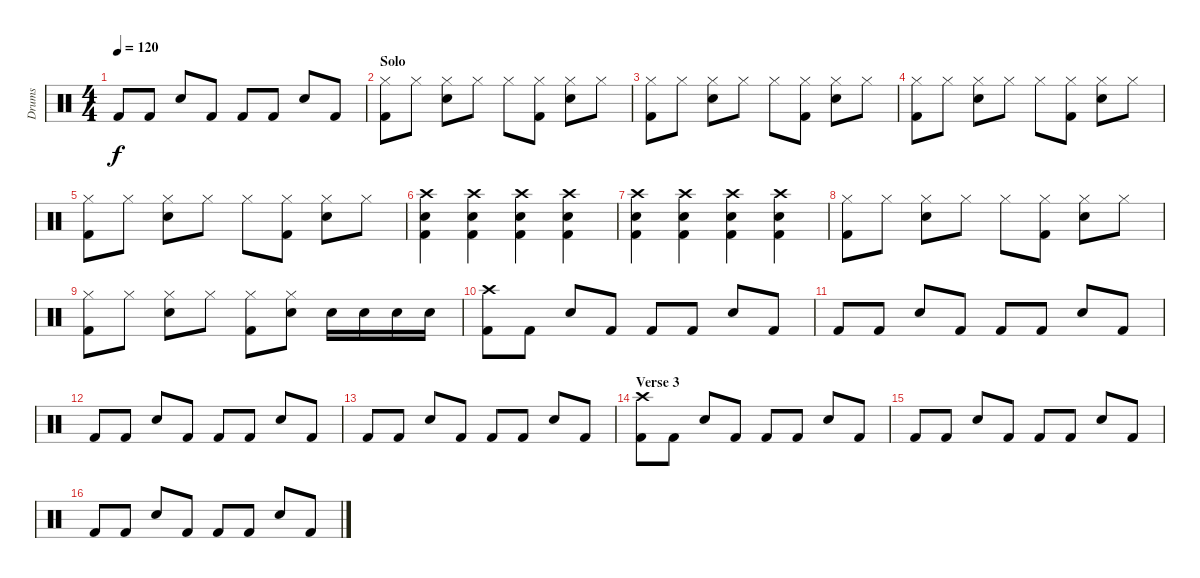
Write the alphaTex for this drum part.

\track ("Drums" "Drums") {instrument percussion}
\staff {score}
\articulation defaults
\ts (4 4)
\tempo 120
\clef neutral
\ks c "Kick (hit) 2".8{dy f} "Kick (hit) 2".8 "Snare (hit) 2".8 "Kick (hit) 2".8 "Kick (hit) 2".8 "Kick (hit) 2".8 "Snare (hit) 2".8 "Kick (hit) 2".8
|
\section ("" "Solo")
("Hi-Hat (closed)" "Kick (hit) 2").8 "Hi-Hat (closed)".8 ("Hi-Hat (closed)" "Snare (hit) 2").8 "Hi-Hat (closed)".8 "Hi-Hat (closed)".8 ("Hi-Hat (closed)" "Kick (hit) 2").8 ("Hi-Hat (closed)" "Snare (hit) 2").8 "Hi-Hat (closed)".8 |
("Hi-Hat (closed)" "Kick (hit) 2").8 "Hi-Hat (closed)".8 ("Hi-Hat (closed)" "Snare (hit) 2").8 "Hi-Hat (closed)".8 "Hi-Hat (closed)".8 ("Hi-Hat (closed)" "Kick (hit) 2").8 ("Hi-Hat (closed)" "Snare (hit) 2").8 "Hi-Hat (closed)".8 |
("Hi-Hat (closed)" "Kick (hit) 2").8 "Hi-Hat (closed)".8 ("Hi-Hat (closed)" "Snare (hit) 2").8 "Hi-Hat (closed)".8 "Hi-Hat (closed)".8 ("Hi-Hat (closed)" "Kick (hit) 2").8 ("Hi-Hat (closed)" "Snare (hit) 2").8 "Hi-Hat (closed)".8 |
("Hi-Hat (closed)" "Kick (hit) 2").8 "Hi-Hat (closed)".8 ("Hi-Hat (closed)" "Snare (hit) 2").8 "Hi-Hat (closed)".8 "Hi-Hat (closed)".8 ("Hi-Hat (closed)" "Kick (hit) 2").8 ("Hi-Hat (closed)" "Snare (hit) 2").8 "Hi-Hat (closed)".8 |
("Crash high (hit)" "Snare (hit) 2" "Kick (hit) 2").4 ("Crash high (hit)" "Snare (hit) 2" "Kick (hit) 2").4 ("Crash high (hit)" "Snare (hit) 2" "Kick (hit) 2").4 ("Crash high (hit)" "Snare (hit) 2" "Kick (hit) 2").4 |
("Crash high (hit)" "Snare (hit) 2" "Kick (hit) 2").4 ("Crash high (hit)" "Snare (hit) 2" "Kick (hit) 2").4 ("Crash high (hit)" "Snare (hit) 2" "Kick (hit) 2").4 ("Crash high (hit)" "Snare (hit) 2" "Kick (hit) 2").4 |
("Hi-Hat (closed)" "Kick (hit) 2").8 "Hi-Hat (closed)".8 ("Hi-Hat (closed)" "Snare (hit) 2").8 "Hi-Hat (closed)".8 "Hi-Hat (closed)".8 ("Hi-Hat (closed)" "Kick (hit) 2").8 ("Hi-Hat (closed)" "Snare (hit) 2").8 "Hi-Hat (closed)".8 |
("Hi-Hat (closed)" "Kick (hit) 2").8 "Hi-Hat (closed)".8 ("Hi-Hat (closed)" "Snare (hit) 2").8 "Hi-Hat (closed)".8 ("Hi-Hat (closed)" "Kick (hit) 2").8 ("Hi-Hat (closed)" "Snare (hit) 2").8 "Snare (hit) 2".16 "Snare (hit) 2".16 "Snare (hit) 2".16 "Snare (hit) 2".16 |
("Crash high (hit)" "Kick (hit) 2").8 "Kick (hit) 2".8 "Snare (hit) 2".8 "Kick (hit) 2".8 "Kick (hit) 2".8 "Kick (hit) 2".8 "Snare (hit) 2".8 "Kick (hit) 2".8 |
"Kick (hit) 2".8 "Kick (hit) 2".8 "Snare (hit) 2".8 "Kick (hit) 2".8 "Kick (hit) 2".8 "Kick (hit) 2".8 "Snare (hit) 2".8 "Kick (hit) 2".8 |
"Kick (hit) 2".8 "Kick (hit) 2".8 "Snare (hit) 2".8 "Kick (hit) 2".8 "Kick (hit) 2".8 "Kick (hit) 2".8 "Snare (hit) 2".8 "Kick (hit) 2".8 |
"Kick (hit) 2".8 "Kick (hit) 2".8 "Snare (hit) 2".8 "Kick (hit) 2".8 "Kick (hit) 2".8 "Kick (hit) 2".8 "Snare (hit) 2".8 "Kick (hit) 2".8 |
\section ("" "Verse 3")
("Crash high (hit)" "Kick (hit) 2").8 "Kick (hit) 2".8 "Snare (hit) 2".8 "Kick (hit) 2".8 "Kick (hit) 2".8 "Kick (hit) 2".8 "Snare (hit) 2".8 "Kick (hit) 2".8 |
"Kick (hit) 2".8 "Kick (hit) 2".8 "Snare (hit) 2".8 "Kick (hit) 2".8 "Kick (hit) 2".8 "Kick (hit) 2".8 "Snare (hit) 2".8 "Kick (hit) 2".8 |
"Kick (hit) 2".8 "Kick (hit) 2".8 "Snare (hit) 2".8 "Kick (hit) 2".8 "Kick (hit) 2".8 "Kick (hit) 2".8 "Snare (hit) 2".8 "Kick (hit) 2".8
